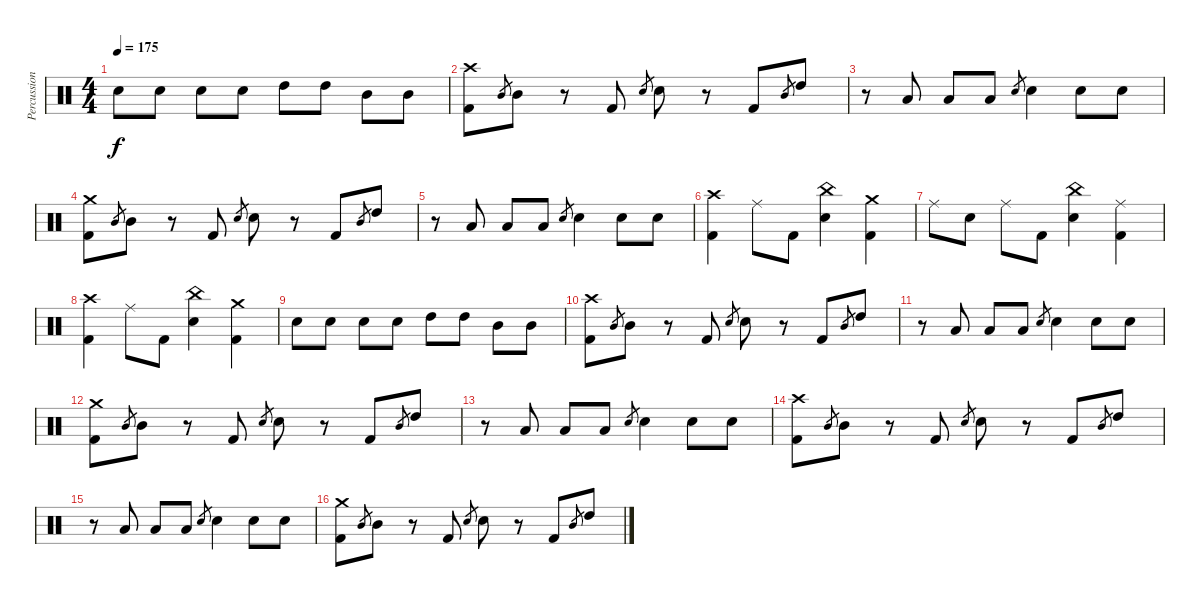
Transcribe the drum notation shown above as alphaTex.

\track ("Percussion" "Percussion") {instrument percussion}
\staff {score}
\articulation defaults
\ts (4 4)
\tempo 175
\clef neutral
\ks c "Electric Snare (hit)".8{dy f} "Electric Snare (hit)".8 "Electric Snare (hit)".8 "Electric Snare (hit)".8 "High Tom (hit)".8 "High Tom (hit)".8 "Mid Tom (hit)".8 "Mid Tom (hit)".8
|
("Crash high (hit)" "Kick (hit) 2").8 "Mid Tom (hit)".8{gr} "Mid Tom (hit)".8 r.8 "Kick (hit) 2".8 "Electric Snare (hit)".8{gr} "Electric Snare (hit)".8 r.8 "Kick (hit) 2".8 "Mid Tom (hit)".8{gr} "High Tom (hit)".8 |
r.8 "Low Tom (hit)".8 "Low Tom (hit)".8 "Low Tom (hit)".8 "Electric Snare (hit)".8{gr} "Electric Snare (hit)".4 "Electric Snare (hit)".8 "Electric Snare (hit)".8 |
("Crash medium (hit)" "Kick (hit) 2").8 "Mid Tom (hit)".8{gr} "Mid Tom (hit)".8 r.8 "Kick (hit) 2".8 "Electric Snare (hit)".8{gr} "Electric Snare (hit)".8 r.8 "Kick (hit) 2".8 "Mid Tom (hit)".8{gr} "High Tom (hit)".8 |
r.8 "Low Tom (hit)".8 "Low Tom (hit)".8 "Low Tom (hit)".8 "Electric Snare (hit)".8{gr} "Electric Snare (hit)".4 "Electric Snare (hit)".8 "Electric Snare (hit)".8 |
("Crash high (hit)" "Kick (hit) 2").4 "Ride (middle)".8 "Kick (hit) 2".8 ("China (hit)" "Electric Snare (hit)").4 ("Crash medium (hit)" "Kick (hit) 2").4 |
"Ride (middle)".8 "Electric Snare (hit)".8 "Ride (middle)".8 "Kick (hit) 2".8 ("China (hit)" "Electric Snare (hit)").4 ("Ride (middle)" "Kick (hit) 2").4 |
("Crash high (hit)" "Kick (hit) 2").4 "Ride (middle)".8 "Kick (hit) 2".8 ("China (hit)" "Electric Snare (hit)").4 ("Crash medium (hit)" "Kick (hit) 2").4 |
"Electric Snare (hit)".8 "Electric Snare (hit)".8 "Electric Snare (hit)".8 "Electric Snare (hit)".8 "High Tom (hit)".8 "High Tom (hit)".8 "Mid Tom (hit)".8 "Mid Tom (hit)".8 |
("Crash high (hit)" "Kick (hit) 2").8 "Mid Tom (hit)".8{gr} "Mid Tom (hit)".8 r.8 "Kick (hit) 2".8 "Electric Snare (hit)".8{gr} "Electric Snare (hit)".8 r.8 "Kick (hit) 2".8 "Mid Tom (hit)".8{gr} "High Tom (hit)".8 |
r.8 "Low Tom (hit)".8 "Low Tom (hit)".8 "Low Tom (hit)".8 "Electric Snare (hit)".8{gr} "Electric Snare (hit)".4 "Electric Snare (hit)".8 "Electric Snare (hit)".8 |
("Crash medium (hit)" "Kick (hit) 2").8 "Mid Tom (hit)".8{gr} "Mid Tom (hit)".8 r.8 "Kick (hit) 2".8 "Electric Snare (hit)".8{gr} "Electric Snare (hit)".8 r.8 "Kick (hit) 2".8 "Mid Tom (hit)".8{gr} "High Tom (hit)".8 |
r.8 "Low Tom (hit)".8 "Low Tom (hit)".8 "Low Tom (hit)".8 "Electric Snare (hit)".8{gr} "Electric Snare (hit)".4 "Electric Snare (hit)".8 "Electric Snare (hit)".8 |
("Crash high (hit)" "Kick (hit) 2").8 "Mid Tom (hit)".8{gr} "Mid Tom (hit)".8 r.8 "Kick (hit) 2".8 "Electric Snare (hit)".8{gr} "Electric Snare (hit)".8 r.8 "Kick (hit) 2".8 "Mid Tom (hit)".8{gr} "High Tom (hit)".8 |
r.8 "Low Tom (hit)".8 "Low Tom (hit)".8 "Low Tom (hit)".8 "Electric Snare (hit)".8{gr} "Electric Snare (hit)".4 "Electric Snare (hit)".8 "Electric Snare (hit)".8 |
("Crash medium (hit)" "Kick (hit) 2").8 "Mid Tom (hit)".8{gr} "Mid Tom (hit)".8 r.8 "Kick (hit) 2".8 "Electric Snare (hit)".8{gr} "Electric Snare (hit)".8 r.8 "Kick (hit) 2".8 "Mid Tom (hit)".8{gr} "High Tom (hit)".8
